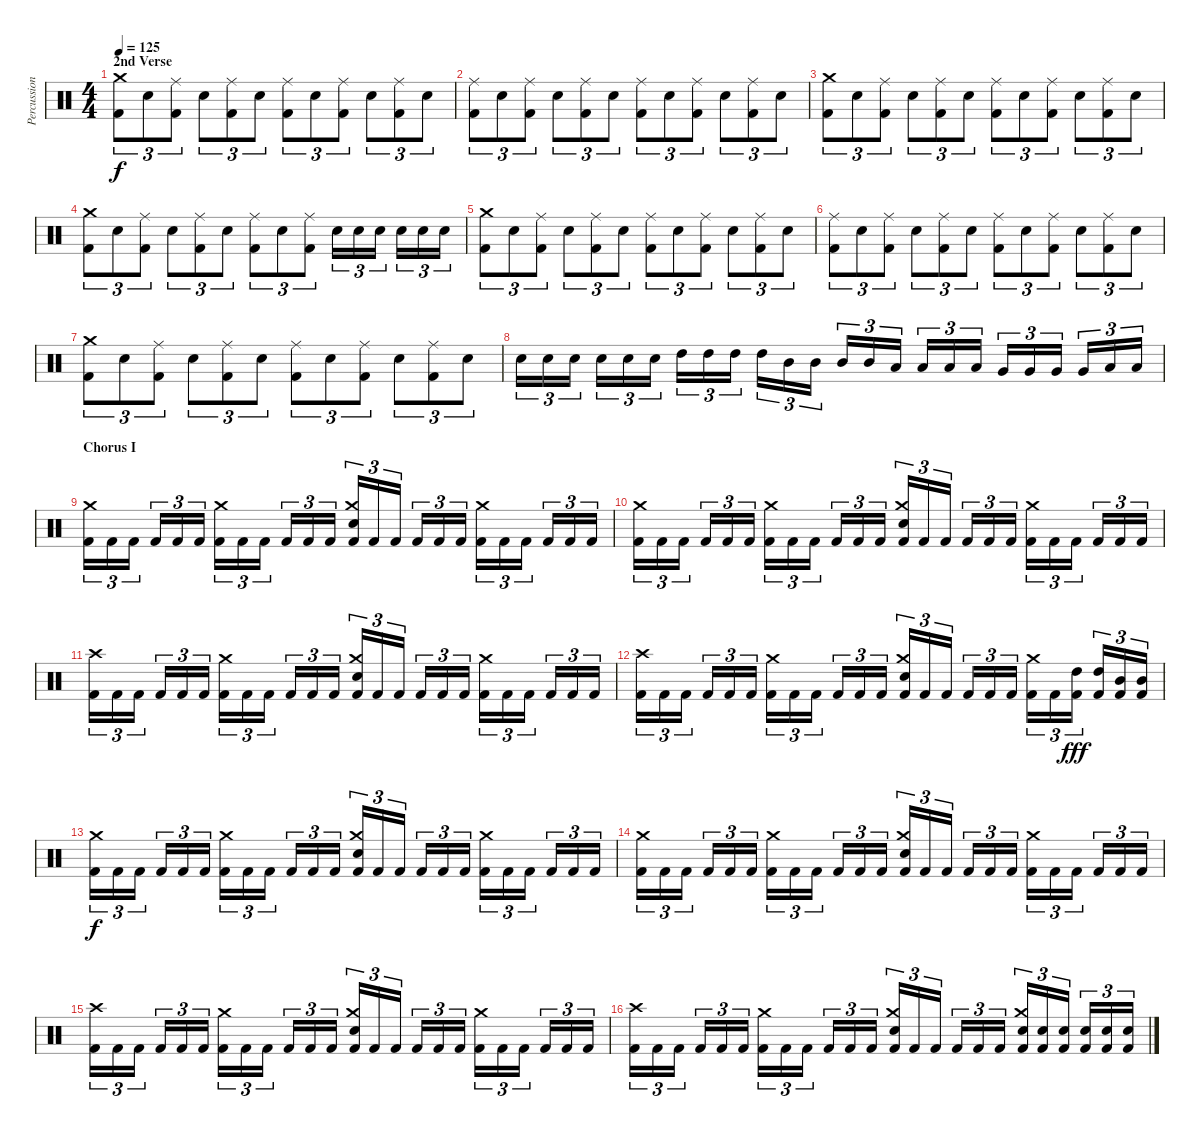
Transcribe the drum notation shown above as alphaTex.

\track ("Percussion" "Percussion") {instrument percussion}
\staff {score}
\articulation defaults
\ts (4 4)
\section ("" "2nd Verse")
\tempo 125
\clef neutral
\ks c
("Kick (hit) 2" "Crash medium (hit)").8{tu (3 2) dy f} "Electric Snare (hit)".8{tu (3 2)} ("Kick (hit) 2" "Ride (middle)").8{tu (3 2)} "Electric Snare (hit)".8{tu (3 2)} ("Kick (hit) 2" "Ride (middle)").8{tu (3 2)} "Electric Snare (hit)".8{tu (3 2)} ("Kick (hit) 2" "Ride (middle)").8{tu (3 2)} "Electric Snare (hit)".8{tu (3 2)} ("Kick (hit) 2" "Ride (middle)").8{tu (3 2)} "Electric Snare (hit)".8{tu (3 2)} ("Kick (hit) 2" "Ride (middle)").8{tu (3 2)} "Electric Snare (hit)".8{tu (3 2)} |
("Kick (hit) 2" "Ride (middle)").8{tu (3 2)} "Electric Snare (hit)".8{tu (3 2)} ("Kick (hit) 2" "Ride (middle)").8{tu (3 2)} "Electric Snare (hit)".8{tu (3 2)} ("Kick (hit) 2" "Ride (middle)").8{tu (3 2)} "Electric Snare (hit)".8{tu (3 2)} ("Kick (hit) 2" "Ride (middle)").8{tu (3 2)} "Electric Snare (hit)".8{tu (3 2)} ("Kick (hit) 2" "Ride (middle)").8{tu (3 2)} "Electric Snare (hit)".8{tu (3 2)} ("Kick (hit) 2" "Ride (middle)").8{tu (3 2)} "Electric Snare (hit)".8{tu (3 2)} |
("Kick (hit) 2" "Crash medium (hit)").8{tu (3 2)} "Electric Snare (hit)".8{tu (3 2)} ("Kick (hit) 2" "Ride (middle)").8{tu (3 2)} "Electric Snare (hit)".8{tu (3 2)} ("Kick (hit) 2" "Ride (middle)").8{tu (3 2)} "Electric Snare (hit)".8{tu (3 2)} ("Kick (hit) 2" "Ride (middle)").8{tu (3 2)} "Electric Snare (hit)".8{tu (3 2)} ("Kick (hit) 2" "Ride (middle)").8{tu (3 2)} "Electric Snare (hit)".8{tu (3 2)} ("Kick (hit) 2" "Ride (middle)").8{tu (3 2)} "Electric Snare (hit)".8{tu (3 2)} |
("Kick (hit) 2" "Crash medium (hit)").8{tu (3 2)} "Electric Snare (hit)".8{tu (3 2)} ("Kick (hit) 2" "Ride (middle)").8{tu (3 2)} "Electric Snare (hit)".8{tu (3 2)} ("Kick (hit) 2" "Ride (middle)").8{tu (3 2)} "Electric Snare (hit)".8{tu (3 2)} ("Kick (hit) 2" "Ride (middle)").8{tu (3 2)} "Electric Snare (hit)".8{tu (3 2)} ("Kick (hit) 2" "Ride (middle)").8{tu (3 2)} "Electric Snare (hit)".16{tu (3 2)} "Electric Snare (hit)".16{tu (3 2)} "Electric Snare (hit)".16{tu (3 2)} "Electric Snare (hit)".16{tu (3 2)} "Electric Snare (hit)".16{tu (3 2)} "Electric Snare (hit)".16{tu (3 2)} |
("Kick (hit) 2" "Crash medium (hit)").8{tu (3 2)} "Electric Snare (hit)".8{tu (3 2)} ("Kick (hit) 2" "Ride (middle)").8{tu (3 2)} "Electric Snare (hit)".8{tu (3 2)} ("Kick (hit) 2" "Ride (middle)").8{tu (3 2)} "Electric Snare (hit)".8{tu (3 2)} ("Kick (hit) 2" "Ride (middle)").8{tu (3 2)} "Electric Snare (hit)".8{tu (3 2)} ("Kick (hit) 2" "Ride (middle)").8{tu (3 2)} "Electric Snare (hit)".8{tu (3 2)} ("Kick (hit) 2" "Ride (middle)").8{tu (3 2)} "Electric Snare (hit)".8{tu (3 2)} |
("Kick (hit) 2" "Ride (middle)").8{tu (3 2)} "Electric Snare (hit)".8{tu (3 2)} ("Kick (hit) 2" "Ride (middle)").8{tu (3 2)} "Electric Snare (hit)".8{tu (3 2)} ("Kick (hit) 2" "Ride (middle)").8{tu (3 2)} "Electric Snare (hit)".8{tu (3 2)} ("Kick (hit) 2" "Ride (middle)").8{tu (3 2)} "Electric Snare (hit)".8{tu (3 2)} ("Kick (hit) 2" "Ride (middle)").8{tu (3 2)} "Electric Snare (hit)".8{tu (3 2)} ("Kick (hit) 2" "Ride (middle)").8{tu (3 2)} "Electric Snare (hit)".8{tu (3 2)} |
("Kick (hit) 2" "Crash medium (hit)").8{tu (3 2)} "Electric Snare (hit)".8{tu (3 2)} ("Kick (hit) 2" "Ride (middle)").8{tu (3 2)} "Electric Snare (hit)".8{tu (3 2)} ("Kick (hit) 2" "Ride (middle)").8{tu (3 2)} "Electric Snare (hit)".8{tu (3 2)} ("Kick (hit) 2" "Ride (middle)").8{tu (3 2)} "Electric Snare (hit)".8{tu (3 2)} ("Kick (hit) 2" "Ride (middle)").8{tu (3 2)} "Electric Snare (hit)".8{tu (3 2)} ("Kick (hit) 2" "Ride (middle)").8{tu (3 2)} "Electric Snare (hit)".8{tu (3 2)} |
"Electric Snare (hit)".16{tu (3 2)} "Electric Snare (hit)".16{tu (3 2)} "Electric Snare (hit)".16{tu (3 2)} "Electric Snare (hit)".16{tu (3 2)} "Electric Snare (hit)".16{tu (3 2)} "Electric Snare (hit)".16{tu (3 2)} "High Tom (hit)".16{tu (3 2)} "High Tom (hit)".16{tu (3 2)} "High Tom (hit)".16{tu (3 2)} "High Tom (hit)".16{tu (3 2)} "Mid Tom (hit)".16{tu (3 2)} "Mid Tom (hit)".16{tu (3 2)} "Mid Tom (hit)".16{tu (3 2)} "Mid Tom (hit)".16{tu (3 2)} "Low Tom (hit)".16{tu (3 2)} "Low Tom (hit)".16{tu (3 2)} "Low Tom (hit)".16{tu (3 2)} "Low Tom (hit)".16{tu (3 2)} "Very Low Tom (hit)".16{tu (3 2)} "Very Low Tom (hit)".16{tu (3 2)} "Very Low Tom (hit)".16{tu (3 2)} "Very Low Tom (hit)".16{tu (3 2)} "Low Floor Tom (hit)".16{tu (3 2)} "Low Floor Tom (hit)".16{tu (3 2)} |
\section ("" "Chorus I")
("Kick (hit) 2" "Crash medium (hit)").16{tu (3 2)} "Kick (hit) 2".16{tu (3 2)} "Kick (hit) 2".16{tu (3 2)} "Kick (hit) 2".16{tu (3 2)} "Kick (hit) 2".16{tu (3 2)} "Kick (hit) 2".16{tu (3 2)} ("Kick (hit) 2" "Crash medium (hit)").16{tu (3 2)} "Kick (hit) 2".16{tu (3 2)} "Kick (hit) 2".16{tu (3 2)} "Kick (hit) 2".16{tu (3 2)} "Kick (hit) 2".16{tu (3 2)} "Kick (hit) 2".16{tu (3 2)} ("Kick (hit) 2" "Electric Snare (hit)" "Crash medium (hit)").16{tu (3 2)} "Kick (hit) 2".16{tu (3 2)} "Kick (hit) 2".16{tu (3 2)} "Kick (hit) 2".16{tu (3 2)} "Kick (hit) 2".16{tu (3 2)} "Kick (hit) 2".16{tu (3 2)} ("Kick (hit) 2" "Crash medium (hit)").16{tu (3 2)} "Kick (hit) 2".16{tu (3 2)} "Kick (hit) 2".16{tu (3 2)} "Kick (hit) 2".16{tu (3 2)} "Kick (hit) 2".16{tu (3 2)} "Kick (hit) 2".16{tu (3 2)} |
("Kick (hit) 2" "Crash medium (hit)").16{tu (3 2)} "Kick (hit) 2".16{tu (3 2)} "Kick (hit) 2".16{tu (3 2)} "Kick (hit) 2".16{tu (3 2)} "Kick (hit) 2".16{tu (3 2)} "Kick (hit) 2".16{tu (3 2)} ("Kick (hit) 2" "Crash medium (hit)").16{tu (3 2)} "Kick (hit) 2".16{tu (3 2)} "Kick (hit) 2".16{tu (3 2)} "Kick (hit) 2".16{tu (3 2)} "Kick (hit) 2".16{tu (3 2)} "Kick (hit) 2".16{tu (3 2)} ("Kick (hit) 2" "Electric Snare (hit)" "Crash medium (hit)").16{tu (3 2)} "Kick (hit) 2".16{tu (3 2)} "Kick (hit) 2".16{tu (3 2)} "Kick (hit) 2".16{tu (3 2)} "Kick (hit) 2".16{tu (3 2)} "Kick (hit) 2".16{tu (3 2)} ("Kick (hit) 2" "Crash medium (hit)").16{tu (3 2)} "Kick (hit) 2".16{tu (3 2)} "Kick (hit) 2".16{tu (3 2)} "Kick (hit) 2".16{tu (3 2)} "Kick (hit) 2".16{tu (3 2)} "Kick (hit) 2".16{tu (3 2)} |
("Kick (hit) 2" "Crash high (hit)").16{tu (3 2)} "Kick (hit) 2".16{tu (3 2)} "Kick (hit) 2".16{tu (3 2)} "Kick (hit) 2".16{tu (3 2)} "Kick (hit) 2".16{tu (3 2)} "Kick (hit) 2".16{tu (3 2)} ("Kick (hit) 2" "Crash medium (hit)").16{tu (3 2)} "Kick (hit) 2".16{tu (3 2)} "Kick (hit) 2".16{tu (3 2)} "Kick (hit) 2".16{tu (3 2)} "Kick (hit) 2".16{tu (3 2)} "Kick (hit) 2".16{tu (3 2)} ("Kick (hit) 2" "Electric Snare (hit)" "Crash medium (hit)").16{tu (3 2)} "Kick (hit) 2".16{tu (3 2)} "Kick (hit) 2".16{tu (3 2)} "Kick (hit) 2".16{tu (3 2)} "Kick (hit) 2".16{tu (3 2)} "Kick (hit) 2".16{tu (3 2)} ("Kick (hit) 2" "Crash medium (hit)").16{tu (3 2)} "Kick (hit) 2".16{tu (3 2)} "Kick (hit) 2".16{tu (3 2)} "Kick (hit) 2".16{tu (3 2)} "Kick (hit) 2".16{tu (3 2)} "Kick (hit) 2".16{tu (3 2)} |
("Kick (hit) 2" "Crash high (hit)").16{tu (3 2)} "Kick (hit) 2".16{tu (3 2)} "Kick (hit) 2".16{tu (3 2)} "Kick (hit) 2".16{tu (3 2)} "Kick (hit) 2".16{tu (3 2)} "Kick (hit) 2".16{tu (3 2)} ("Kick (hit) 2" "Crash medium (hit)").16{tu (3 2)} "Kick (hit) 2".16{tu (3 2)} "Kick (hit) 2".16{tu (3 2)} "Kick (hit) 2".16{tu (3 2)} "Kick (hit) 2".16{tu (3 2)} "Kick (hit) 2".16{tu (3 2)} ("Kick (hit) 2" "Electric Snare (hit)" "Crash medium (hit)").16{tu (3 2)} "Kick (hit) 2".16{tu (3 2)} "Kick (hit) 2".16{tu (3 2)} "Kick (hit) 2".16{tu (3 2)} "Kick (hit) 2".16{tu (3 2)} "Kick (hit) 2".16{tu (3 2)} ("Kick (hit) 2" "Crash medium (hit)").16{tu (3 2)} "Kick (hit) 2".16{tu (3 2)} ("Kick (hit) 2" "High Tom (hit)").16{tu (3 2) dy fff} ("Kick (hit) 2" "High Tom (hit)").16{tu (3 2)} ("Kick (hit) 2" "Mid Tom (hit)").16{tu (3 2)} ("Kick (hit) 2" "Mid Tom (hit)").16{tu (3 2)} |
("Kick (hit) 2" "Crash medium (hit)").16{tu (3 2) dy f} "Kick (hit) 2".16{tu (3 2)} "Kick (hit) 2".16{tu (3 2)} "Kick (hit) 2".16{tu (3 2)} "Kick (hit) 2".16{tu (3 2)} "Kick (hit) 2".16{tu (3 2)} ("Kick (hit) 2" "Crash medium (hit)").16{tu (3 2)} "Kick (hit) 2".16{tu (3 2)} "Kick (hit) 2".16{tu (3 2)} "Kick (hit) 2".16{tu (3 2)} "Kick (hit) 2".16{tu (3 2)} "Kick (hit) 2".16{tu (3 2)} ("Kick (hit) 2" "Electric Snare (hit)" "Crash medium (hit)").16{tu (3 2)} "Kick (hit) 2".16{tu (3 2)} "Kick (hit) 2".16{tu (3 2)} "Kick (hit) 2".16{tu (3 2)} "Kick (hit) 2".16{tu (3 2)} "Kick (hit) 2".16{tu (3 2)} ("Kick (hit) 2" "Crash medium (hit)").16{tu (3 2)} "Kick (hit) 2".16{tu (3 2)} "Kick (hit) 2".16{tu (3 2)} "Kick (hit) 2".16{tu (3 2)} "Kick (hit) 2".16{tu (3 2)} "Kick (hit) 2".16{tu (3 2)} |
("Kick (hit) 2" "Crash medium (hit)").16{tu (3 2)} "Kick (hit) 2".16{tu (3 2)} "Kick (hit) 2".16{tu (3 2)} "Kick (hit) 2".16{tu (3 2)} "Kick (hit) 2".16{tu (3 2)} "Kick (hit) 2".16{tu (3 2)} ("Kick (hit) 2" "Crash medium (hit)").16{tu (3 2)} "Kick (hit) 2".16{tu (3 2)} "Kick (hit) 2".16{tu (3 2)} "Kick (hit) 2".16{tu (3 2)} "Kick (hit) 2".16{tu (3 2)} "Kick (hit) 2".16{tu (3 2)} ("Kick (hit) 2" "Electric Snare (hit)" "Crash medium (hit)").16{tu (3 2)} "Kick (hit) 2".16{tu (3 2)} "Kick (hit) 2".16{tu (3 2)} "Kick (hit) 2".16{tu (3 2)} "Kick (hit) 2".16{tu (3 2)} "Kick (hit) 2".16{tu (3 2)} ("Kick (hit) 2" "Crash medium (hit)").16{tu (3 2)} "Kick (hit) 2".16{tu (3 2)} "Kick (hit) 2".16{tu (3 2)} "Kick (hit) 2".16{tu (3 2)} "Kick (hit) 2".16{tu (3 2)} "Kick (hit) 2".16{tu (3 2)} |
("Kick (hit) 2" "Crash high (hit)").16{tu (3 2)} "Kick (hit) 2".16{tu (3 2)} "Kick (hit) 2".16{tu (3 2)} "Kick (hit) 2".16{tu (3 2)} "Kick (hit) 2".16{tu (3 2)} "Kick (hit) 2".16{tu (3 2)} ("Kick (hit) 2" "Crash medium (hit)").16{tu (3 2)} "Kick (hit) 2".16{tu (3 2)} "Kick (hit) 2".16{tu (3 2)} "Kick (hit) 2".16{tu (3 2)} "Kick (hit) 2".16{tu (3 2)} "Kick (hit) 2".16{tu (3 2)} ("Kick (hit) 2" "Electric Snare (hit)" "Crash medium (hit)").16{tu (3 2)} "Kick (hit) 2".16{tu (3 2)} "Kick (hit) 2".16{tu (3 2)} "Kick (hit) 2".16{tu (3 2)} "Kick (hit) 2".16{tu (3 2)} "Kick (hit) 2".16{tu (3 2)} ("Kick (hit) 2" "Crash medium (hit)").16{tu (3 2)} "Kick (hit) 2".16{tu (3 2)} "Kick (hit) 2".16{tu (3 2)} "Kick (hit) 2".16{tu (3 2)} "Kick (hit) 2".16{tu (3 2)} "Kick (hit) 2".16{tu (3 2)} |
("Kick (hit) 2" "Crash high (hit)").16{tu (3 2)} "Kick (hit) 2".16{tu (3 2)} "Kick (hit) 2".16{tu (3 2)} "Kick (hit) 2".16{tu (3 2)} "Kick (hit) 2".16{tu (3 2)} "Kick (hit) 2".16{tu (3 2)} ("Kick (hit) 2" "Crash medium (hit)").16{tu (3 2)} "Kick (hit) 2".16{tu (3 2)} "Kick (hit) 2".16{tu (3 2)} "Kick (hit) 2".16{tu (3 2)} "Kick (hit) 2".16{tu (3 2)} "Kick (hit) 2".16{tu (3 2)} ("Kick (hit) 2" "Electric Snare (hit)" "Crash medium (hit)").16{tu (3 2)} "Kick (hit) 2".16{tu (3 2)} "Kick (hit) 2".16{tu (3 2)} "Kick (hit) 2".16{tu (3 2)} "Kick (hit) 2".16{tu (3 2)} "Kick (hit) 2".16{tu (3 2)} ("Kick (hit) 2" "Electric Snare (hit)" "Crash medium (hit)").16{tu (3 2)} ("Kick (hit) 2" "Electric Snare (hit)").16{tu (3 2)} ("Kick (hit) 2" "Electric Snare (hit)").16{tu (3 2)} ("Kick (hit) 2" "Electric Snare (hit)").16{tu (3 2)} ("Kick (hit) 2" "Electric Snare (hit)").16{tu (3 2)} ("Kick (hit) 2" "Electric Snare (hit)").16{tu (3 2)}
